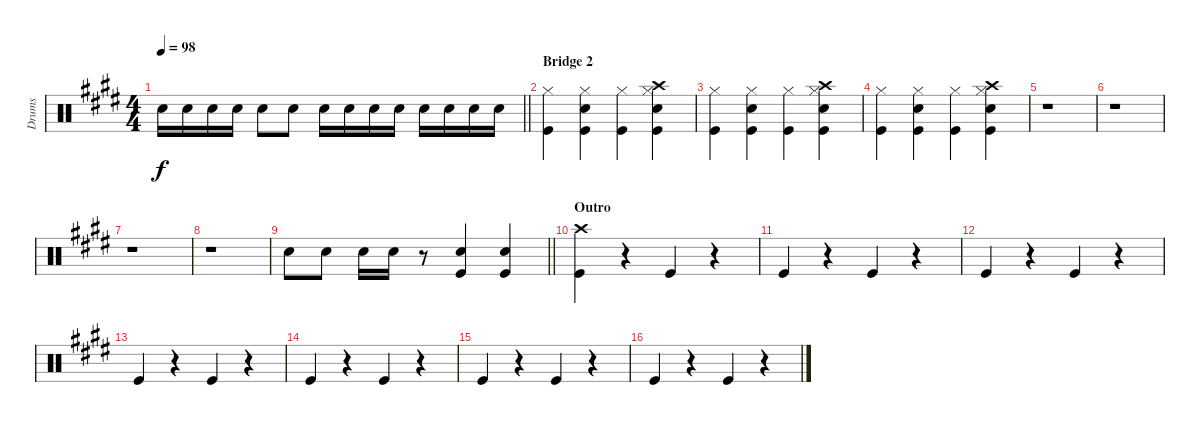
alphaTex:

\track ("Drums" "Drums") {instrument percussion}
\staff {score}
\articulation defaults
\ts (4 4)
\tempo 98
\clef neutral
\barLineRight lightlight
\ks c#minor "Snare (hit) 2".16{dy f} "Snare (hit) 2".16 "Snare (hit) 2".16 "Snare (hit) 2".16 "Snare (hit) 2".8 "Snare (hit) 2".8 "Snare (hit) 2".16 "Snare (hit) 2".16 "Snare (hit) 2".16 "Snare (hit) 2".16 "Snare (hit) 2".16 "Snare (hit) 2".16 "Snare (hit) 2".16 "Snare (hit) 2".16
|
\section ("" "Bridge 2")
("Kick (hit)" "Hi-Hat (closed)").4 ("Kick (hit)" "Snare (hit) 2" "Hi-Hat (closed)").4 ("Kick (hit)" "Hi-Hat (closed)").4 ("Kick (hit)" "Snare (hit) 2" "Hi-Hat (closed)" "Crash high (hit)").4 |
("Kick (hit)" "Hi-Hat (closed)").4 ("Kick (hit)" "Snare (hit) 2" "Hi-Hat (closed)").4 ("Kick (hit)" "Hi-Hat (closed)").4 ("Kick (hit)" "Snare (hit) 2" "Hi-Hat (closed)" "Crash high (hit)").4 |
("Kick (hit)" "Hi-Hat (closed)").4 ("Kick (hit)" "Snare (hit) 2" "Hi-Hat (closed)").4 ("Kick (hit)" "Hi-Hat (closed)").4 ("Kick (hit)" "Snare (hit) 2" "Hi-Hat (closed)" "Crash high (hit)").4 |
r.1 |
r.1 |
r.1 |
r.1 |
\barLineRight lightlight "Snare (hit) 2".8 "Snare (hit) 2".8 "Snare (hit) 2".16 "Snare (hit) 2".16
r.8 ("Kick (hit)" "Snare (hit) 2").4 ("Kick (hit)" "Snare (hit) 2").4 |
\section ("" "Outro")
("Kick (hit)" "Crash high (hit)").4 r.4 "Kick (hit)".4 r.4 |
"Kick (hit)".4 r.4 "Kick (hit)".4 r.4 |
"Kick (hit)".4 r.4 "Kick (hit)".4 r.4 |
"Kick (hit)".4 r.4 "Kick (hit)".4 r.4 |
"Kick (hit)".4 r.4 "Kick (hit)".4 r.4 |
"Kick (hit)".4 r.4 "Kick (hit)".4 r.4 |
"Kick (hit)".4 r.4 "Kick (hit)".4 r.4
